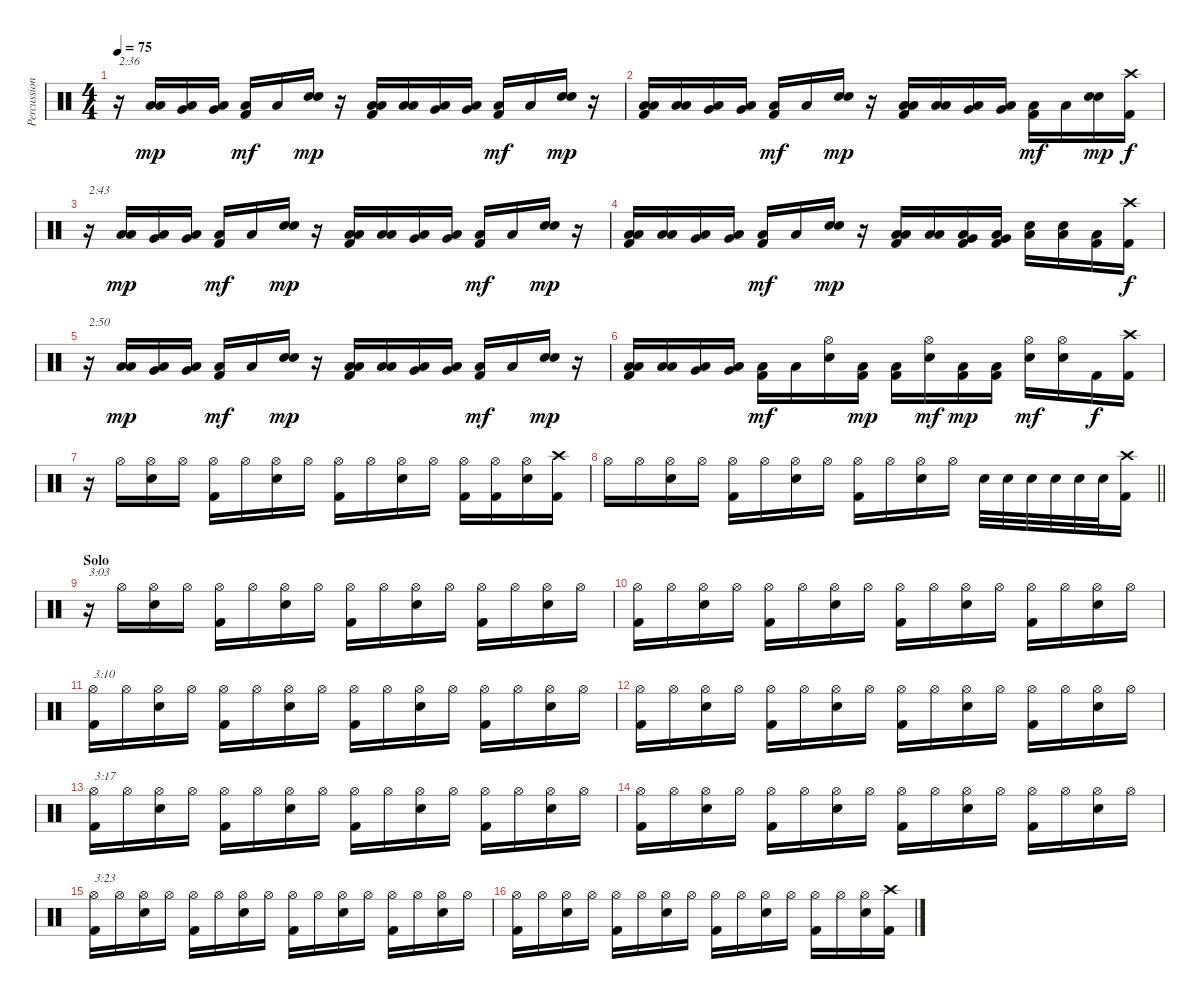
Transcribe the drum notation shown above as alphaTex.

\track ("Percussion" "Percussion") {instrument percussion}
\staff {score}
\articulation defaults
\ts (4 4)
\tempo 75
\clef neutral
\ks c
r.16{txt "2:36" dy f} ("Low Tom (hit)" "Low Floor Tom (hit)").16{dy mp} ("Very Low Tom (hit)" "Low Floor Tom (hit)").16 ("Very Low Tom (hit)" "Low Floor Tom (hit)").16 ("Low Floor Tom (hit)" "Kick (hit) 2").16{dy mf} "Low Floor Tom (hit)".16 ("Snare (hit) 2" "Electric Snare (hit)").16{dy mp} r.16 ("Low Tom (hit)" "Low Floor Tom (hit)" "Kick (hit) 2").16 ("Low Tom (hit)" "Low Floor Tom (hit)").16 ("Very Low Tom (hit)" "Low Floor Tom (hit)").16 ("Very Low Tom (hit)" "Low Floor Tom (hit)").16 ("Low Floor Tom (hit)" "Kick (hit) 2").16{dy mf} "Low Floor Tom (hit)".16 ("Snare (hit) 2" "Electric Snare (hit)").16{dy mp} r.16 |
("Low Tom (hit)" "Low Floor Tom (hit)" "Kick (hit) 2").16 ("Low Tom (hit)" "Low Floor Tom (hit)").16 ("Very Low Tom (hit)" "Low Floor Tom (hit)").16 ("Very Low Tom (hit)" "Low Floor Tom (hit)").16 ("Low Floor Tom (hit)" "Kick (hit) 2").16{dy mf} "Low Floor Tom (hit)".16 ("Snare (hit) 2" "Electric Snare (hit)").16{dy mp} r.16 ("Low Tom (hit)" "Low Floor Tom (hit)" "Kick (hit) 2").16 ("Low Tom (hit)" "Low Floor Tom (hit)").16 ("Very Low Tom (hit)" "Low Floor Tom (hit)").16 ("Very Low Tom (hit)" "Low Floor Tom (hit)").16 ("Low Floor Tom (hit)" "Kick (hit) 2").16{dy mf} "Low Floor Tom (hit)".16 ("Snare (hit) 2" "Electric Snare (hit)").16{dy mp} ("Crash high (hit)" "Kick (hit) 2").16{dy f} |
r.16{txt "2:43"} ("Low Tom (hit)" "Low Floor Tom (hit)").16{dy mp} ("Very Low Tom (hit)" "Low Floor Tom (hit)").16 ("Very Low Tom (hit)" "Low Floor Tom (hit)").16 ("Low Floor Tom (hit)" "Kick (hit) 2").16{dy mf} "Low Floor Tom (hit)".16 ("Snare (hit) 2" "Electric Snare (hit)").16{dy mp} r.16 ("Low Tom (hit)" "Low Floor Tom (hit)" "Kick (hit) 2").16 ("Low Tom (hit)" "Low Floor Tom (hit)").16 ("Very Low Tom (hit)" "Low Floor Tom (hit)").16 ("Very Low Tom (hit)" "Low Floor Tom (hit)").16 ("Low Floor Tom (hit)" "Kick (hit) 2").16{dy mf} "Low Floor Tom (hit)".16 ("Snare (hit) 2" "Electric Snare (hit)").16{dy mp} r.16 |
("Low Tom (hit)" "Low Floor Tom (hit)" "Kick (hit) 2").16 ("Low Tom (hit)" "Low Floor Tom (hit)").16 ("Very Low Tom (hit)" "Low Floor Tom (hit)").16 ("Very Low Tom (hit)" "Low Floor Tom (hit)").16 ("Low Floor Tom (hit)" "Kick (hit) 2").16{dy mf} "Low Floor Tom (hit)".16 ("Snare (hit) 2" "Electric Snare (hit)").16{dy mp} r.16 ("Low Tom (hit)" "Low Floor Tom (hit)" "Kick (hit) 2").16 ("Low Tom (hit)" "Low Floor Tom (hit)").16 ("Very Low Tom (hit)" "Low Floor Tom (hit)" "Kick (hit) 2").16 ("Very Low Tom (hit)" "Low Floor Tom (hit)" "Kick (hit) 2").16 ("Electric Snare (hit)" "Low Floor Tom (hit)").16 ("Electric Snare (hit)" "Low Floor Tom (hit)").16 ("Low Floor Tom (hit)" "Kick (hit) 2").16 ("Crash high (hit)" "Kick (hit) 2").16{dy f} |
r.16{txt "2:50"} ("Low Tom (hit)" "Low Floor Tom (hit)").16{dy mp} ("Very Low Tom (hit)" "Low Floor Tom (hit)").16 ("Very Low Tom (hit)" "Low Floor Tom (hit)").16 ("Low Floor Tom (hit)" "Kick (hit) 2").16{dy mf} "Low Floor Tom (hit)".16 ("Snare (hit) 2" "Electric Snare (hit)").16{dy mp} r.16 ("Low Tom (hit)" "Low Floor Tom (hit)" "Kick (hit) 2").16 ("Low Tom (hit)" "Low Floor Tom (hit)").16 ("Very Low Tom (hit)" "Low Floor Tom (hit)").16 ("Very Low Tom (hit)" "Low Floor Tom (hit)").16 ("Low Floor Tom (hit)" "Kick (hit) 2").16{dy mf} "Low Floor Tom (hit)".16 ("Snare (hit) 2" "Electric Snare (hit)").16{dy mp} r.16 |
("Low Tom (hit)" "Low Floor Tom (hit)" "Kick (hit) 2").16 ("Low Tom (hit)" "Low Floor Tom (hit)").16 ("Very Low Tom (hit)" "Low Floor Tom (hit)").16 ("Very Low Tom (hit)" "Low Floor Tom (hit)").16 ("Low Floor Tom (hit)" "Kick (hit) 2").16{dy mf} "Low Floor Tom (hit)".16 ("Hi-Hat (open)" "Electric Snare (hit)").16 ("Low Floor Tom (hit)" "Kick (hit) 2").16{dy mp} ("Low Floor Tom (hit)" "Kick (hit) 2").16 ("Hi-Hat (open)" "Electric Snare (hit)").16{dy mf} ("Low Floor Tom (hit)" "Kick (hit) 2").16{dy mp} ("Low Floor Tom (hit)" "Kick (hit) 2").16 ("Hi-Hat (open)" "Electric Snare (hit)").16{dy mf} ("Hi-Hat (open)" "Electric Snare (hit)").16 "Kick (hit) 2".16{dy f} ("Crash high (hit)" "Kick (hit) 2").16 |
r.16 "Hi-Hat (open)".16 ("Hi-Hat (open)" "Electric Snare (hit)").16 "Hi-Hat (open)".16 ("Hi-Hat (open)" "Kick (hit) 2").16 "Hi-Hat (open)".16 ("Hi-Hat (open)" "Electric Snare (hit)").16 "Hi-Hat (open)".16 ("Hi-Hat (open)" "Kick (hit) 2").16 "Hi-Hat (open)".16 ("Hi-Hat (open)" "Electric Snare (hit)").16 "Hi-Hat (open)".16 ("Hi-Hat (open)" "Kick (hit) 2").16 ("Hi-Hat (open)" "Kick (hit) 2").16 ("Hi-Hat (open)" "Electric Snare (hit)").16 ("Crash high (hit)" "Kick (hit) 2").16 |
\barLineRight lightlight "Hi-Hat (open)".16 "Hi-Hat (open)".16
("Hi-Hat (open)" "Electric Snare (hit)").16 "Hi-Hat (open)".16 ("Hi-Hat (open)" "Kick (hit) 2").16 "Hi-Hat (open)".16 ("Hi-Hat (open)" "Electric Snare (hit)").16 "Hi-Hat (open)".16 ("Hi-Hat (open)" "Kick (hit) 2").16 "Hi-Hat (open)".16 ("Hi-Hat (open)" "Electric Snare (hit)").16 "Hi-Hat (open)".16 "Electric Snare (hit)".32 "Electric Snare (hit)".32 "Electric Snare (hit)".32 "Electric Snare (hit)".32 "Electric Snare (hit)".32 "Electric Snare (hit)".32 ("Crash high (hit)" "Kick (hit) 2").16 |
\section ("" "Solo")
r.16{txt "3:03"} "Hi-Hat (open)".16 ("Hi-Hat (open)" "Electric Snare (hit)").16 "Hi-Hat (open)".16 ("Hi-Hat (open)" "Kick (hit) 2").16 "Hi-Hat (open)".16 ("Hi-Hat (open)" "Electric Snare (hit)").16 "Hi-Hat (open)".16 ("Hi-Hat (open)" "Kick (hit) 2").16 "Hi-Hat (open)".16 ("Hi-Hat (open)" "Electric Snare (hit)").16 "Hi-Hat (open)".16 ("Hi-Hat (open)" "Kick (hit) 2").16 "Hi-Hat (open)".16 ("Hi-Hat (open)" "Electric Snare (hit)").16 "Hi-Hat (open)".16 |
("Hi-Hat (open)" "Kick (hit) 2").16 "Hi-Hat (open)".16 ("Hi-Hat (open)" "Electric Snare (hit)").16 "Hi-Hat (open)".16 ("Hi-Hat (open)" "Kick (hit) 2").16 "Hi-Hat (open)".16 ("Hi-Hat (open)" "Electric Snare (hit)").16 "Hi-Hat (open)".16 ("Hi-Hat (open)" "Kick (hit) 2").16 "Hi-Hat (open)".16 ("Hi-Hat (open)" "Electric Snare (hit)").16 "Hi-Hat (open)".16 ("Hi-Hat (open)" "Kick (hit) 2").16 "Hi-Hat (open)".16 ("Hi-Hat (open)" "Electric Snare (hit)").16 "Hi-Hat (open)".16 |
("Hi-Hat (open)" "Kick (hit) 2").16{txt "3:10"} "Hi-Hat (open)".16 ("Hi-Hat (open)" "Electric Snare (hit)").16 "Hi-Hat (open)".16 ("Hi-Hat (open)" "Kick (hit) 2").16 "Hi-Hat (open)".16 ("Hi-Hat (open)" "Electric Snare (hit)").16 "Hi-Hat (open)".16 ("Hi-Hat (open)" "Kick (hit) 2").16 "Hi-Hat (open)".16 ("Hi-Hat (open)" "Electric Snare (hit)").16 "Hi-Hat (open)".16 ("Hi-Hat (open)" "Kick (hit) 2").16 "Hi-Hat (open)".16 ("Hi-Hat (open)" "Electric Snare (hit)").16 "Hi-Hat (open)".16 |
("Hi-Hat (open)" "Kick (hit) 2").16 "Hi-Hat (open)".16 ("Hi-Hat (open)" "Electric Snare (hit)").16 "Hi-Hat (open)".16 ("Hi-Hat (open)" "Kick (hit) 2").16 "Hi-Hat (open)".16 ("Hi-Hat (open)" "Electric Snare (hit)").16 "Hi-Hat (open)".16 ("Hi-Hat (open)" "Kick (hit) 2").16 "Hi-Hat (open)".16 ("Hi-Hat (open)" "Electric Snare (hit)").16 "Hi-Hat (open)".16 ("Hi-Hat (open)" "Kick (hit) 2").16 "Hi-Hat (open)".16 ("Hi-Hat (open)" "Electric Snare (hit)").16 "Hi-Hat (open)".16 |
("Hi-Hat (open)" "Kick (hit) 2").16{txt "3:17"} "Hi-Hat (open)".16 ("Hi-Hat (open)" "Electric Snare (hit)").16 "Hi-Hat (open)".16 ("Hi-Hat (open)" "Kick (hit) 2").16 "Hi-Hat (open)".16 ("Hi-Hat (open)" "Electric Snare (hit)").16 "Hi-Hat (open)".16 ("Hi-Hat (open)" "Kick (hit) 2").16 "Hi-Hat (open)".16 ("Hi-Hat (open)" "Electric Snare (hit)").16 "Hi-Hat (open)".16 ("Hi-Hat (open)" "Kick (hit) 2").16 "Hi-Hat (open)".16 ("Hi-Hat (open)" "Electric Snare (hit)").16 "Hi-Hat (open)".16 |
("Hi-Hat (open)" "Kick (hit) 2").16 "Hi-Hat (open)".16 ("Hi-Hat (open)" "Electric Snare (hit)").16 "Hi-Hat (open)".16 ("Hi-Hat (open)" "Kick (hit) 2").16 "Hi-Hat (open)".16 ("Hi-Hat (open)" "Electric Snare (hit)").16 "Hi-Hat (open)".16 ("Hi-Hat (open)" "Kick (hit) 2").16 "Hi-Hat (open)".16 ("Hi-Hat (open)" "Electric Snare (hit)").16 "Hi-Hat (open)".16 ("Hi-Hat (open)" "Kick (hit) 2").16 "Hi-Hat (open)".16 ("Hi-Hat (open)" "Electric Snare (hit)").16 "Hi-Hat (open)".16 |
("Hi-Hat (open)" "Kick (hit) 2").16{txt "3:23"} "Hi-Hat (open)".16 ("Hi-Hat (open)" "Electric Snare (hit)").16 "Hi-Hat (open)".16 ("Hi-Hat (open)" "Kick (hit) 2").16 "Hi-Hat (open)".16 ("Hi-Hat (open)" "Electric Snare (hit)").16 "Hi-Hat (open)".16 ("Hi-Hat (open)" "Kick (hit) 2").16 "Hi-Hat (open)".16 ("Hi-Hat (open)" "Electric Snare (hit)").16 "Hi-Hat (open)".16 ("Hi-Hat (open)" "Kick (hit) 2").16 "Hi-Hat (open)".16 ("Hi-Hat (open)" "Electric Snare (hit)").16 "Hi-Hat (open)".16 |
("Hi-Hat (open)" "Kick (hit) 2").16 "Hi-Hat (open)".16 ("Hi-Hat (open)" "Electric Snare (hit)").16 "Hi-Hat (open)".16 ("Hi-Hat (open)" "Kick (hit) 2").16 "Hi-Hat (open)".16 ("Hi-Hat (open)" "Electric Snare (hit)").16 "Hi-Hat (open)".16 ("Hi-Hat (open)" "Kick (hit) 2").16 "Hi-Hat (open)".16 ("Hi-Hat (open)" "Electric Snare (hit)").16 "Hi-Hat (open)".16 ("Hi-Hat (open)" "Kick (hit) 2").16 "Hi-Hat (open)".16 ("Hi-Hat (open)" "Electric Snare (hit)").16 ("Crash high (hit)" "Kick (hit) 2").16
